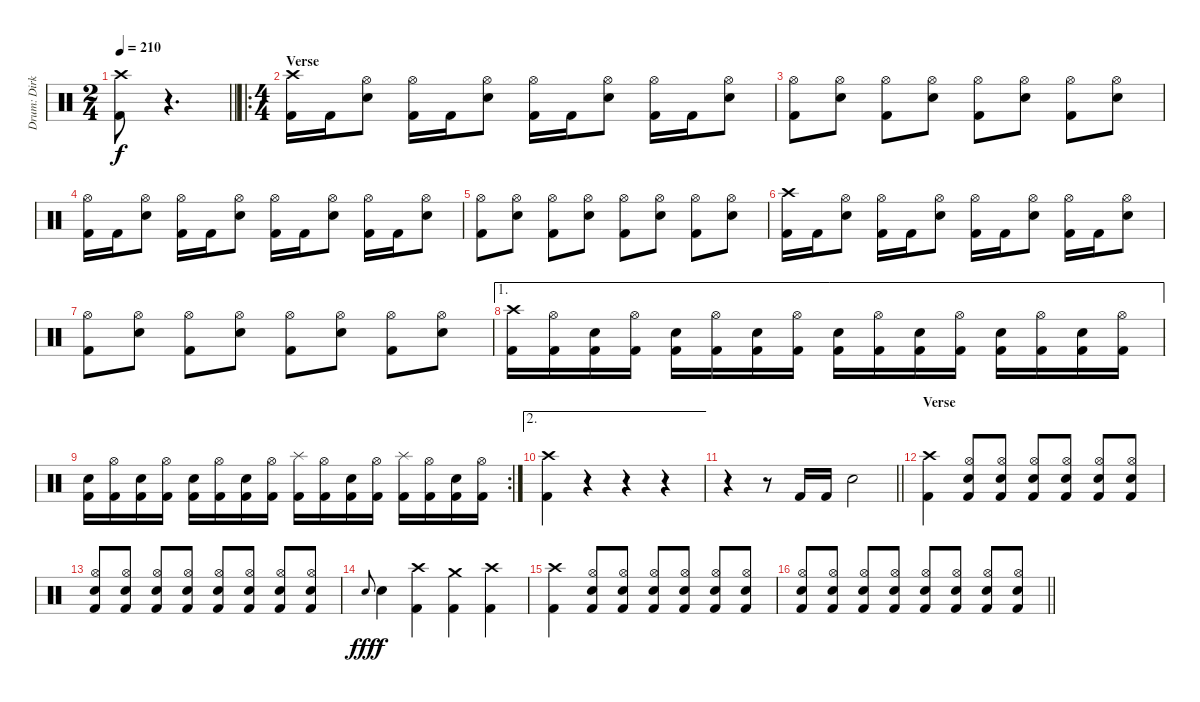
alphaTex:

\track ("Drum: Dirk" "Drum: Dirk") {instrument percussion}
\staff {score}
\articulation defaults
\ts (2 4)
\tempo 210
\clef neutral
\barLineRight lightlight
\ks c
("Crash high (hit)" "Kick (hit) 2").8{dy f} r.4{d volume 0} |
\ro
\ts (4 4)
\section ("" "Verse")
("Crash high (hit)" "Kick (hit) 2").16{volume 12} "Kick (hit) 2".16 ("Hi-Hat (open)" "Electric Snare (hit)").8 ("Hi-Hat (open)" "Kick (hit) 2").16 "Kick (hit) 2".16 ("Hi-Hat (open)" "Electric Snare (hit)").8 ("Hi-Hat (open)" "Kick (hit) 2").16 "Kick (hit) 2".16 ("Hi-Hat (open)" "Electric Snare (hit)").8 ("Hi-Hat (open)" "Kick (hit) 2").16 "Kick (hit) 2".16 ("Hi-Hat (open)" "Electric Snare (hit)").8 |
("Hi-Hat (open)" "Kick (hit) 2").8 ("Hi-Hat (open)" "Electric Snare (hit)").8 ("Hi-Hat (open)" "Kick (hit) 2").8 ("Hi-Hat (open)" "Electric Snare (hit)").8 ("Hi-Hat (open)" "Kick (hit) 2").8 ("Hi-Hat (open)" "Electric Snare (hit)").8 ("Hi-Hat (open)" "Kick (hit) 2").8 ("Hi-Hat (open)" "Electric Snare (hit)").8 |
("Hi-Hat (open)" "Kick (hit) 2").16 "Kick (hit) 2".16 ("Hi-Hat (open)" "Electric Snare (hit)").8 ("Hi-Hat (open)" "Kick (hit) 2").16 "Kick (hit) 2".16 ("Hi-Hat (open)" "Electric Snare (hit)").8 ("Hi-Hat (open)" "Kick (hit) 2").16 "Kick (hit) 2".16 ("Hi-Hat (open)" "Electric Snare (hit)").8 ("Hi-Hat (open)" "Kick (hit) 2").16 "Kick (hit) 2".16 ("Hi-Hat (open)" "Electric Snare (hit)").8 |
("Hi-Hat (open)" "Kick (hit) 2").8 ("Hi-Hat (open)" "Electric Snare (hit)").8 ("Hi-Hat (open)" "Kick (hit) 2").8 ("Hi-Hat (open)" "Electric Snare (hit)").8 ("Hi-Hat (open)" "Kick (hit) 2").8 ("Hi-Hat (open)" "Electric Snare (hit)").8 ("Hi-Hat (open)" "Kick (hit) 2").8 ("Hi-Hat (open)" "Electric Snare (hit)").8 |
("Crash high (hit)" "Kick (hit) 2").16 "Kick (hit) 2".16 ("Hi-Hat (open)" "Electric Snare (hit)").8 ("Hi-Hat (open)" "Kick (hit) 2").16 "Kick (hit) 2".16 ("Hi-Hat (open)" "Electric Snare (hit)").8 ("Hi-Hat (open)" "Kick (hit) 2").16 "Kick (hit) 2".16 ("Hi-Hat (open)" "Electric Snare (hit)").8 ("Hi-Hat (open)" "Kick (hit) 2").16 "Kick (hit) 2".16 ("Hi-Hat (open)" "Electric Snare (hit)").8 |
("Hi-Hat (open)" "Kick (hit) 2").8 ("Hi-Hat (open)" "Electric Snare (hit)").8 ("Hi-Hat (open)" "Kick (hit) 2").8 ("Hi-Hat (open)" "Electric Snare (hit)").8 ("Hi-Hat (open)" "Kick (hit) 2").8 ("Hi-Hat (open)" "Electric Snare (hit)").8 ("Hi-Hat (open)" "Kick (hit) 2").8 ("Hi-Hat (open)" "Electric Snare (hit)").8 |
\ae 1
("Crash high (hit)" "Kick (hit) 2").16 ("Hi-Hat (open)" "Kick (hit) 2").16 ("Electric Snare (hit)" "Kick (hit) 2").16 ("Hi-Hat (open)" "Kick (hit) 2").16 ("Electric Snare (hit)" "Kick (hit) 2").16 ("Hi-Hat (open)" "Kick (hit) 2").16 ("Electric Snare (hit)" "Kick (hit) 2").16 ("Hi-Hat (open)" "Kick (hit) 2").16 ("Electric Snare (hit)" "Kick (hit) 2").16 ("Hi-Hat (open)" "Kick (hit) 2").16 ("Electric Snare (hit)" "Kick (hit) 2").16 ("Hi-Hat (open)" "Kick (hit) 2").16 ("Electric Snare (hit)" "Kick (hit) 2").16 ("Hi-Hat (open)" "Kick (hit) 2").16 ("Electric Snare (hit)" "Kick (hit) 2").16 ("Hi-Hat (open)" "Kick (hit) 2").16 |
\rc 2
("Electric Snare (hit)" "Kick (hit) 2").16 ("Hi-Hat (open)" "Kick (hit) 2").16 ("Electric Snare (hit)" "Kick (hit) 2").16 ("Hi-Hat (open)" "Kick (hit) 2").16 ("Electric Snare (hit)" "Kick (hit) 2").16 ("Hi-Hat (open)" "Kick (hit) 2").16 ("Electric Snare (hit)" "Kick (hit) 2").16 ("Hi-Hat (open)" "Kick (hit) 2").16 ("Splash (hit)" "Kick (hit) 2").16 ("Hi-Hat (open)" "Kick (hit) 2").16 ("Electric Snare (hit)" "Kick (hit) 2").16 ("Hi-Hat (open)" "Kick (hit) 2").16 ("Splash (hit)" "Kick (hit) 2").16 ("Hi-Hat (open)" "Kick (hit) 2").16 ("Electric Snare (hit)" "Kick (hit) 2").16 ("Hi-Hat (open)" "Kick (hit) 2").16 |
\ae 2
("Crash high (hit)" "Kick (hit) 2").4 r.4 r.4 r.4 |
\barLineRight lightlight
r.4 r.8 "Kick (hit) 2".16 "Kick (hit) 2".16 "Electric Snare (hit)".2 |
\section ("" "Verse")
("Crash high (hit)" "Kick (hit) 2").4 ("Hi-Hat (open)" "Electric Snare (hit)" "Kick (hit) 2").8 ("Hi-Hat (open)" "Electric Snare (hit)" "Kick (hit) 2").8 ("Hi-Hat (open)" "Electric Snare (hit)" "Kick (hit) 2").8 ("Hi-Hat (open)" "Electric Snare (hit)" "Kick (hit) 2").8 ("Hi-Hat (open)" "Electric Snare (hit)" "Kick (hit) 2").8 ("Hi-Hat (open)" "Electric Snare (hit)" "Kick (hit) 2").8 |
("Hi-Hat (open)" "Electric Snare (hit)" "Kick (hit) 2").8 ("Hi-Hat (open)" "Electric Snare (hit)" "Kick (hit) 2").8 ("Hi-Hat (open)" "Electric Snare (hit)" "Kick (hit) 2").8 ("Hi-Hat (open)" "Electric Snare (hit)" "Kick (hit) 2").8 ("Hi-Hat (open)" "Electric Snare (hit)" "Kick (hit) 2").8 ("Hi-Hat (open)" "Electric Snare (hit)" "Kick (hit) 2").8 ("Hi-Hat (open)" "Electric Snare (hit)" "Kick (hit) 2").8 ("Hi-Hat (open)" "Electric Snare (hit)" "Kick (hit) 2").8 |
"Electric Snare (hit)".8{gr onbeat dy fff} "Electric Snare (hit)".4{dy f} ("Crash high (hit)" "Kick (hit) 2").4 ("Crash medium (hit)" "Kick (hit) 2").4 ("Crash high (hit)" "Kick (hit) 2").4 |
("Crash high (hit)" "Kick (hit) 2").4 ("Hi-Hat (open)" "Electric Snare (hit)" "Kick (hit) 2").8 ("Hi-Hat (open)" "Electric Snare (hit)" "Kick (hit) 2").8 ("Hi-Hat (open)" "Electric Snare (hit)" "Kick (hit) 2").8 ("Hi-Hat (open)" "Electric Snare (hit)" "Kick (hit) 2").8 ("Hi-Hat (open)" "Electric Snare (hit)" "Kick (hit) 2").8 ("Hi-Hat (open)" "Electric Snare (hit)" "Kick (hit) 2").8 |
\barLineRight lightlight
("Hi-Hat (open)" "Electric Snare (hit)" "Kick (hit) 2").8 ("Hi-Hat (open)" "Electric Snare (hit)" "Kick (hit) 2").8 ("Hi-Hat (open)" "Electric Snare (hit)" "Kick (hit) 2").8 ("Hi-Hat (open)" "Electric Snare (hit)" "Kick (hit) 2").8 ("Hi-Hat (open)" "Electric Snare (hit)" "Kick (hit) 2").8 ("Hi-Hat (open)" "Electric Snare (hit)" "Kick (hit) 2").8 ("Hi-Hat (open)" "Electric Snare (hit)" "Kick (hit) 2").8 ("Hi-Hat (open)" "Electric Snare (hit)" "Kick (hit) 2").8
